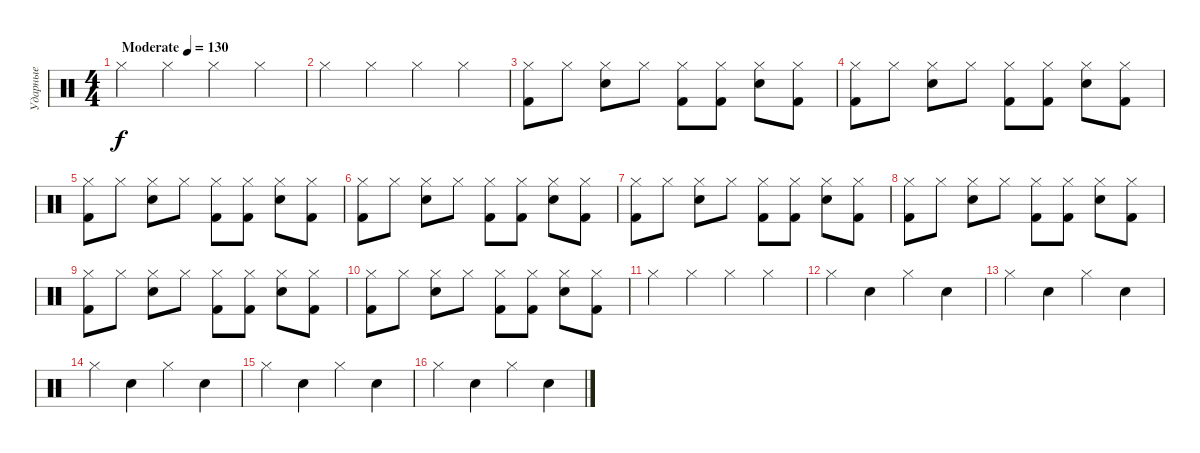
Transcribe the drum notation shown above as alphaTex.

\track ("Ударные" "Ударные") {instrument percussion}
\staff {score}
\articulation defaults
\ts (4 4)
\tempo (130 "Moderate")
\clef neutral
\ks c "Hi-Hat (closed)".4{dy f} "Hi-Hat (closed)".4 "Hi-Hat (closed)".4 "Hi-Hat (closed)".4
|
"Hi-Hat (closed)".4 "Hi-Hat (closed)".4 "Hi-Hat (closed)".4 "Hi-Hat (closed)".4 |
("Hi-Hat (closed)" "Kick (hit) 2").8 "Hi-Hat (closed)".8 ("Hi-Hat (closed)" "Snare (hit) 2").8 "Hi-Hat (closed)".8 ("Hi-Hat (closed)" "Kick (hit) 2").8 ("Hi-Hat (closed)" "Kick (hit) 2").8 ("Hi-Hat (closed)" "Snare (hit) 2").8 ("Hi-Hat (closed)" "Kick (hit) 2").8 |
("Hi-Hat (closed)" "Kick (hit) 2").8 "Hi-Hat (closed)".8 ("Hi-Hat (closed)" "Snare (hit) 2").8 "Hi-Hat (closed)".8 ("Hi-Hat (closed)" "Kick (hit) 2").8 ("Hi-Hat (closed)" "Kick (hit) 2").8 ("Hi-Hat (closed)" "Snare (hit) 2").8 ("Hi-Hat (closed)" "Kick (hit) 2").8 |
("Hi-Hat (closed)" "Kick (hit) 2").8 "Hi-Hat (closed)".8 ("Hi-Hat (closed)" "Snare (hit) 2").8 "Hi-Hat (closed)".8 ("Hi-Hat (closed)" "Kick (hit) 2").8 ("Hi-Hat (closed)" "Kick (hit) 2").8 ("Hi-Hat (closed)" "Snare (hit) 2").8 ("Hi-Hat (closed)" "Kick (hit) 2").8 |
("Hi-Hat (closed)" "Kick (hit) 2").8 "Hi-Hat (closed)".8 ("Hi-Hat (closed)" "Snare (hit) 2").8 "Hi-Hat (closed)".8 ("Hi-Hat (closed)" "Kick (hit) 2").8 ("Hi-Hat (closed)" "Kick (hit) 2").8 ("Hi-Hat (closed)" "Snare (hit) 2").8 ("Hi-Hat (closed)" "Kick (hit) 2").8 |
("Hi-Hat (closed)" "Kick (hit) 2").8 "Hi-Hat (closed)".8 ("Hi-Hat (closed)" "Snare (hit) 2").8 "Hi-Hat (closed)".8 ("Hi-Hat (closed)" "Kick (hit) 2").8 ("Hi-Hat (closed)" "Kick (hit) 2").8 ("Hi-Hat (closed)" "Snare (hit) 2").8 ("Hi-Hat (closed)" "Kick (hit) 2").8 |
("Hi-Hat (closed)" "Kick (hit) 2").8 "Hi-Hat (closed)".8 ("Hi-Hat (closed)" "Snare (hit) 2").8 "Hi-Hat (closed)".8 ("Hi-Hat (closed)" "Kick (hit) 2").8 ("Hi-Hat (closed)" "Kick (hit) 2").8 ("Hi-Hat (closed)" "Snare (hit) 2").8 ("Hi-Hat (closed)" "Kick (hit) 2").8 |
("Hi-Hat (closed)" "Kick (hit) 2").8 "Hi-Hat (closed)".8 ("Hi-Hat (closed)" "Snare (hit) 2").8 "Hi-Hat (closed)".8 ("Hi-Hat (closed)" "Kick (hit) 2").8 ("Hi-Hat (closed)" "Kick (hit) 2").8 ("Hi-Hat (closed)" "Snare (hit) 2").8 ("Hi-Hat (closed)" "Kick (hit) 2").8 |
("Hi-Hat (closed)" "Kick (hit) 2").8 "Hi-Hat (closed)".8 ("Hi-Hat (closed)" "Snare (hit) 2").8 "Hi-Hat (closed)".8 ("Hi-Hat (closed)" "Kick (hit) 2").8 ("Hi-Hat (closed)" "Kick (hit) 2").8 ("Hi-Hat (closed)" "Snare (hit) 2").8 ("Hi-Hat (closed)" "Kick (hit) 2").8 |
"Hi-Hat (closed)".4 "Hi-Hat (closed)".4 "Hi-Hat (closed)".4 "Hi-Hat (closed)".4 |
"Hi-Hat (closed)".4 "Electric Snare (hit)".4 "Hi-Hat (closed)".4 "Electric Snare (hit)".4 |
"Hi-Hat (closed)".4 "Electric Snare (hit)".4 "Hi-Hat (closed)".4 "Electric Snare (hit)".4 |
"Hi-Hat (closed)".4 "Electric Snare (hit)".4 "Hi-Hat (closed)".4 "Electric Snare (hit)".4 |
"Hi-Hat (closed)".4 "Electric Snare (hit)".4 "Hi-Hat (closed)".4 "Electric Snare (hit)".4 |
"Hi-Hat (closed)".4 "Electric Snare (hit)".4 "Hi-Hat (closed)".4 "Electric Snare (hit)".4
